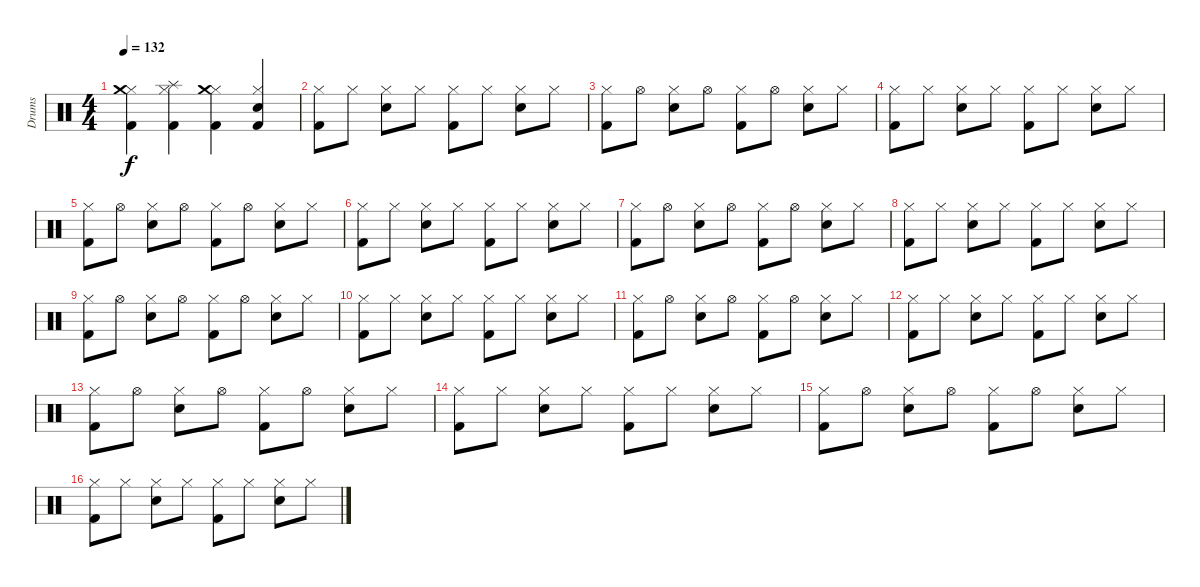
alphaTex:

\track ("Drums" "Drums") {instrument percussion}
\staff {score}
\articulation defaults
\ts (4 4)
\tempo 132
\clef neutral
\ks c
("Kick (hit) 2" "Hi-Hat (closed)" "Crash medium (hit)").4{dy f} ("Kick (hit) 2" "Hi-Hat (closed)" "Splash (hit)").4 ("Kick (hit) 2" "Hi-Hat (closed)" "Crash medium (hit)").4 ("Kick (hit) 2" "Electric Snare (hit)" "Hi-Hat (closed)").4 |
("Kick (hit) 2" "Hi-Hat (closed)").8 "Hi-Hat (closed)".8 ("Electric Snare (hit)" "Hi-Hat (closed)").8 "Hi-Hat (closed)".8 ("Kick (hit) 2" "Hi-Hat (closed)").8 "Hi-Hat (closed)".8 ("Electric Snare (hit)" "Hi-Hat (closed)").8 "Hi-Hat (closed)".8 |
("Kick (hit) 2" "Hi-Hat (closed)").8 "Hi-Hat (open)".8 ("Electric Snare (hit)" "Hi-Hat (closed)").8 "Hi-Hat (open)".8 ("Kick (hit) 2" "Hi-Hat (closed)").8 "Hi-Hat (open)".8 ("Electric Snare (hit)" "Hi-Hat (closed)").8 "Hi-Hat (closed)".8 |
("Kick (hit) 2" "Hi-Hat (closed)").8 "Hi-Hat (closed)".8 ("Electric Snare (hit)" "Hi-Hat (closed)").8 "Hi-Hat (closed)".8 ("Kick (hit) 2" "Hi-Hat (closed)").8 "Hi-Hat (closed)".8 ("Electric Snare (hit)" "Hi-Hat (closed)").8 "Hi-Hat (closed)".8 |
("Kick (hit) 2" "Hi-Hat (closed)").8 "Hi-Hat (open)".8 ("Electric Snare (hit)" "Hi-Hat (closed)").8 "Hi-Hat (open)".8 ("Kick (hit) 2" "Hi-Hat (closed)").8 "Hi-Hat (open)".8 ("Electric Snare (hit)" "Hi-Hat (closed)").8 "Hi-Hat (closed)".8 |
("Kick (hit) 2" "Hi-Hat (closed)").8 "Hi-Hat (closed)".8 ("Electric Snare (hit)" "Hi-Hat (closed)").8 "Hi-Hat (closed)".8 ("Kick (hit) 2" "Hi-Hat (closed)").8 "Hi-Hat (closed)".8 ("Electric Snare (hit)" "Hi-Hat (closed)").8 "Hi-Hat (closed)".8 |
("Kick (hit) 2" "Hi-Hat (closed)").8 "Hi-Hat (open)".8 ("Electric Snare (hit)" "Hi-Hat (closed)").8 "Hi-Hat (open)".8 ("Kick (hit) 2" "Hi-Hat (closed)").8 "Hi-Hat (open)".8 ("Electric Snare (hit)" "Hi-Hat (closed)").8 "Hi-Hat (closed)".8 |
("Kick (hit) 2" "Hi-Hat (closed)").8 "Hi-Hat (closed)".8 ("Electric Snare (hit)" "Hi-Hat (closed)").8 "Hi-Hat (closed)".8 ("Kick (hit) 2" "Hi-Hat (closed)").8 "Hi-Hat (closed)".8 ("Electric Snare (hit)" "Hi-Hat (closed)").8 "Hi-Hat (closed)".8 |
("Kick (hit) 2" "Hi-Hat (closed)").8 "Hi-Hat (open)".8 ("Electric Snare (hit)" "Hi-Hat (closed)").8 "Hi-Hat (open)".8 ("Kick (hit) 2" "Hi-Hat (closed)").8 "Hi-Hat (open)".8 ("Electric Snare (hit)" "Hi-Hat (closed)").8 "Hi-Hat (closed)".8 |
("Kick (hit) 2" "Hi-Hat (closed)").8 "Hi-Hat (closed)".8 ("Electric Snare (hit)" "Hi-Hat (closed)").8 "Hi-Hat (closed)".8 ("Kick (hit) 2" "Hi-Hat (closed)").8 "Hi-Hat (closed)".8 ("Electric Snare (hit)" "Hi-Hat (closed)").8 "Hi-Hat (closed)".8 |
("Kick (hit) 2" "Hi-Hat (closed)").8 "Hi-Hat (open)".8 ("Electric Snare (hit)" "Hi-Hat (closed)").8 "Hi-Hat (open)".8 ("Kick (hit) 2" "Hi-Hat (closed)").8 "Hi-Hat (open)".8 ("Electric Snare (hit)" "Hi-Hat (closed)").8 "Hi-Hat (closed)".8 |
("Kick (hit) 2" "Hi-Hat (closed)").8 "Hi-Hat (closed)".8 ("Electric Snare (hit)" "Hi-Hat (closed)").8 "Hi-Hat (closed)".8 ("Kick (hit) 2" "Hi-Hat (closed)").8 "Hi-Hat (closed)".8 ("Electric Snare (hit)" "Hi-Hat (closed)").8 "Hi-Hat (closed)".8 |
("Kick (hit) 2" "Hi-Hat (closed)").8 "Hi-Hat (open)".8 ("Electric Snare (hit)" "Hi-Hat (closed)").8 "Hi-Hat (open)".8 ("Kick (hit) 2" "Hi-Hat (closed)").8 "Hi-Hat (open)".8 ("Electric Snare (hit)" "Hi-Hat (closed)").8 "Hi-Hat (closed)".8 |
("Kick (hit) 2" "Hi-Hat (closed)").8 "Hi-Hat (closed)".8 ("Electric Snare (hit)" "Hi-Hat (closed)").8 "Hi-Hat (closed)".8 ("Kick (hit) 2" "Hi-Hat (closed)").8 "Hi-Hat (closed)".8 ("Electric Snare (hit)" "Hi-Hat (closed)").8 "Hi-Hat (closed)".8 |
("Kick (hit) 2" "Hi-Hat (closed)").8 "Hi-Hat (open)".8 ("Electric Snare (hit)" "Hi-Hat (closed)").8 "Hi-Hat (open)".8 ("Kick (hit) 2" "Hi-Hat (closed)").8 "Hi-Hat (open)".8 ("Electric Snare (hit)" "Hi-Hat (closed)").8 "Hi-Hat (closed)".8 |
("Kick (hit) 2" "Hi-Hat (closed)").8 "Hi-Hat (closed)".8 ("Electric Snare (hit)" "Hi-Hat (closed)").8 "Hi-Hat (closed)".8 ("Kick (hit) 2" "Hi-Hat (closed)").8 "Hi-Hat (closed)".8 ("Electric Snare (hit)" "Hi-Hat (closed)").8 "Hi-Hat (closed)".8
